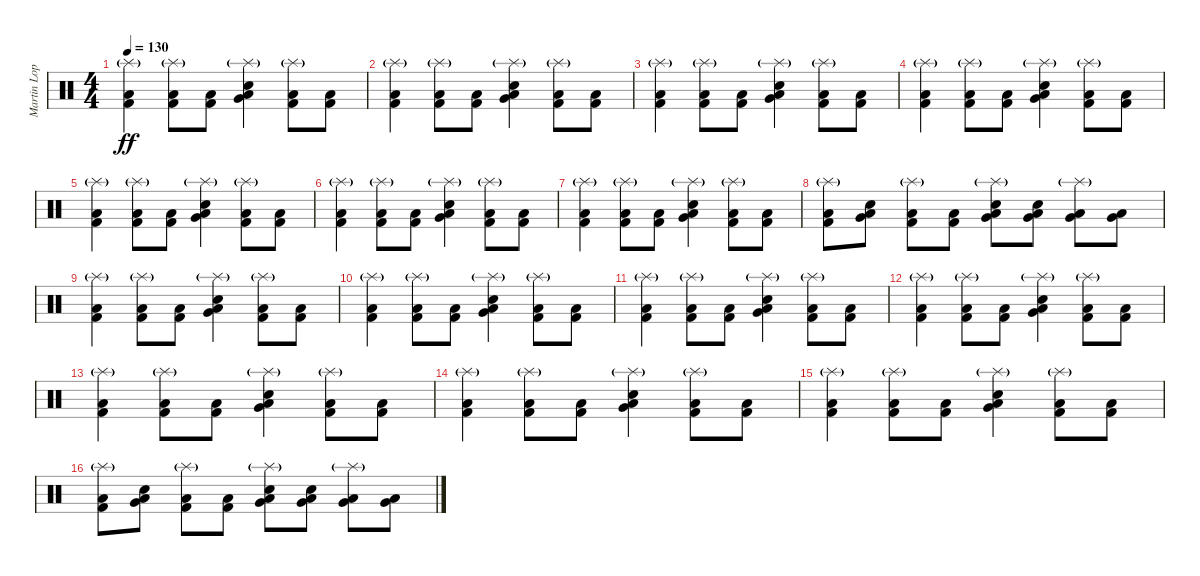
\track ("Martin Lopez" "Martin Lop") {instrument percussion}
\staff {score}
\articulation defaults
\ts (4 4)
\tempo 130
\clef neutral
\ks c
("Splash (hit)"{g} "Kick (hit) 2" "Low Floor Tom (hit)").4{dy ff} ("Splash (hit)"{g} "Kick (hit) 2" "Low Floor Tom (hit)").8 ("Kick (hit) 2" "Low Floor Tom (hit)").8 ("Splash (hit)"{g} "Very Low Tom (hit)" "Snare (hit) 2" "Low Floor Tom (hit)").4 ("Splash (hit)"{g} "Kick (hit) 2" "Low Floor Tom (hit)").8 ("Kick (hit) 2" "Low Floor Tom (hit)").8 |
("Splash (hit)"{g} "Kick (hit) 2" "Low Floor Tom (hit)").4 ("Splash (hit)"{g} "Kick (hit) 2" "Low Floor Tom (hit)").8 ("Kick (hit) 2" "Low Floor Tom (hit)").8 ("Splash (hit)"{g} "Very Low Tom (hit)" "Snare (hit) 2" "Low Floor Tom (hit)").4 ("Splash (hit)"{g} "Kick (hit) 2" "Low Floor Tom (hit)").8 ("Kick (hit) 2" "Low Floor Tom (hit)").8 |
("Splash (hit)"{g} "Kick (hit) 2" "Low Floor Tom (hit)").4 ("Splash (hit)"{g} "Kick (hit) 2" "Low Floor Tom (hit)").8 ("Kick (hit) 2" "Low Floor Tom (hit)").8 ("Splash (hit)"{g} "Very Low Tom (hit)" "Snare (hit) 2" "Low Floor Tom (hit)").4 ("Splash (hit)"{g} "Kick (hit) 2" "Low Floor Tom (hit)").8 ("Kick (hit) 2" "Low Floor Tom (hit)").8 |
("Splash (hit)"{g} "Kick (hit) 2" "Low Floor Tom (hit)").4 ("Splash (hit)"{g} "Kick (hit) 2" "Low Floor Tom (hit)").8 ("Kick (hit) 2" "Low Floor Tom (hit)").8 ("Splash (hit)"{g} "Very Low Tom (hit)" "Snare (hit) 2" "Low Floor Tom (hit)").4 ("Splash (hit)"{g} "Kick (hit) 2" "Low Floor Tom (hit)").8 ("Kick (hit) 2" "Low Floor Tom (hit)").8 |
("Splash (hit)"{g} "Kick (hit) 2" "Low Floor Tom (hit)").4 ("Splash (hit)"{g} "Kick (hit) 2" "Low Floor Tom (hit)").8 ("Kick (hit) 2" "Low Floor Tom (hit)").8 ("Splash (hit)"{g} "Very Low Tom (hit)" "Snare (hit) 2" "Low Floor Tom (hit)").4 ("Splash (hit)"{g} "Kick (hit) 2" "Low Floor Tom (hit)").8 ("Kick (hit) 2" "Low Floor Tom (hit)").8 |
("Splash (hit)"{g} "Kick (hit) 2" "Low Floor Tom (hit)").4 ("Splash (hit)"{g} "Kick (hit) 2" "Low Floor Tom (hit)").8 ("Kick (hit) 2" "Low Floor Tom (hit)").8 ("Splash (hit)"{g} "Very Low Tom (hit)" "Snare (hit) 2" "Low Floor Tom (hit)").4 ("Splash (hit)"{g} "Kick (hit) 2" "Low Floor Tom (hit)").8 ("Kick (hit) 2" "Low Floor Tom (hit)").8 |
("Splash (hit)"{g} "Kick (hit) 2" "Low Floor Tom (hit)").4 ("Splash (hit)"{g} "Kick (hit) 2" "Low Floor Tom (hit)").8 ("Kick (hit) 2" "Low Floor Tom (hit)").8 ("Splash (hit)"{g} "Very Low Tom (hit)" "Snare (hit) 2" "Low Floor Tom (hit)").4 ("Splash (hit)"{g} "Kick (hit) 2" "Low Floor Tom (hit)").8 ("Kick (hit) 2" "Low Floor Tom (hit)").8 |
("Splash (hit)"{g} "Kick (hit) 2" "Low Floor Tom (hit)").8 ("Very Low Tom (hit)" "Snare (hit) 2" "Low Floor Tom (hit)").8 ("Splash (hit)"{g} "Kick (hit) 2" "Low Floor Tom (hit)").8 ("Kick (hit) 2" "Low Floor Tom (hit)").8 ("Splash (hit)"{g} "Very Low Tom (hit)" "Snare (hit) 2" "Low Floor Tom (hit)").8 ("Very Low Tom (hit)" "Snare (hit) 2" "Low Floor Tom (hit)").8 ("Splash (hit)"{g} "Very Low Tom (hit)" "Low Floor Tom (hit)").8 ("Very Low Tom (hit)" "Low Floor Tom (hit)").8 |
("Splash (hit)"{g} "Kick (hit) 2" "Low Floor Tom (hit)").4 ("Splash (hit)"{g} "Kick (hit) 2" "Low Floor Tom (hit)").8 ("Kick (hit) 2" "Low Floor Tom (hit)").8 ("Splash (hit)"{g} "Very Low Tom (hit)" "Snare (hit) 2" "Low Floor Tom (hit)").4 ("Splash (hit)"{g} "Kick (hit) 2" "Low Floor Tom (hit)").8 ("Kick (hit) 2" "Low Floor Tom (hit)").8 |
("Splash (hit)"{g} "Kick (hit) 2" "Low Floor Tom (hit)").4 ("Splash (hit)"{g} "Kick (hit) 2" "Low Floor Tom (hit)").8 ("Kick (hit) 2" "Low Floor Tom (hit)").8 ("Splash (hit)"{g} "Very Low Tom (hit)" "Snare (hit) 2" "Low Floor Tom (hit)").4 ("Splash (hit)"{g} "Kick (hit) 2" "Low Floor Tom (hit)").8 ("Kick (hit) 2" "Low Floor Tom (hit)").8 |
("Splash (hit)"{g} "Kick (hit) 2" "Low Floor Tom (hit)").4 ("Splash (hit)"{g} "Kick (hit) 2" "Low Floor Tom (hit)").8 ("Kick (hit) 2" "Low Floor Tom (hit)").8 ("Splash (hit)"{g} "Very Low Tom (hit)" "Snare (hit) 2" "Low Floor Tom (hit)").4 ("Splash (hit)"{g} "Kick (hit) 2" "Low Floor Tom (hit)").8 ("Kick (hit) 2" "Low Floor Tom (hit)").8 |
("Splash (hit)"{g} "Kick (hit) 2" "Low Floor Tom (hit)").4 ("Splash (hit)"{g} "Kick (hit) 2" "Low Floor Tom (hit)").8 ("Kick (hit) 2" "Low Floor Tom (hit)").8 ("Splash (hit)"{g} "Very Low Tom (hit)" "Snare (hit) 2" "Low Floor Tom (hit)").4 ("Splash (hit)"{g} "Kick (hit) 2" "Low Floor Tom (hit)").8 ("Kick (hit) 2" "Low Floor Tom (hit)").8 |
("Splash (hit)"{g} "Kick (hit) 2" "Low Floor Tom (hit)").4 ("Splash (hit)"{g} "Kick (hit) 2" "Low Floor Tom (hit)").8 ("Kick (hit) 2" "Low Floor Tom (hit)").8 ("Splash (hit)"{g} "Very Low Tom (hit)" "Snare (hit) 2" "Low Floor Tom (hit)").4 ("Splash (hit)"{g} "Kick (hit) 2" "Low Floor Tom (hit)").8 ("Kick (hit) 2" "Low Floor Tom (hit)").8 |
("Splash (hit)"{g} "Kick (hit) 2" "Low Floor Tom (hit)").4 ("Splash (hit)"{g} "Kick (hit) 2" "Low Floor Tom (hit)").8 ("Kick (hit) 2" "Low Floor Tom (hit)").8 ("Splash (hit)"{g} "Very Low Tom (hit)" "Snare (hit) 2" "Low Floor Tom (hit)").4 ("Splash (hit)"{g} "Kick (hit) 2" "Low Floor Tom (hit)").8 ("Kick (hit) 2" "Low Floor Tom (hit)").8 |
("Splash (hit)"{g} "Kick (hit) 2" "Low Floor Tom (hit)").4 ("Splash (hit)"{g} "Kick (hit) 2" "Low Floor Tom (hit)").8 ("Kick (hit) 2" "Low Floor Tom (hit)").8 ("Splash (hit)"{g} "Very Low Tom (hit)" "Snare (hit) 2" "Low Floor Tom (hit)").4 ("Splash (hit)"{g} "Kick (hit) 2" "Low Floor Tom (hit)").8 ("Kick (hit) 2" "Low Floor Tom (hit)").8 |
("Splash (hit)"{g} "Kick (hit) 2" "Low Floor Tom (hit)").8 ("Very Low Tom (hit)" "Snare (hit) 2" "Low Floor Tom (hit)").8 ("Splash (hit)"{g} "Kick (hit) 2" "Low Floor Tom (hit)").8 ("Kick (hit) 2" "Low Floor Tom (hit)").8 ("Splash (hit)"{g} "Very Low Tom (hit)" "Snare (hit) 2" "Low Floor Tom (hit)").8 ("Very Low Tom (hit)" "Snare (hit) 2" "Low Floor Tom (hit)").8 ("Splash (hit)"{g} "Very Low Tom (hit)" "Low Floor Tom (hit)").8 ("Very Low Tom (hit)" "Low Floor Tom (hit)").8
